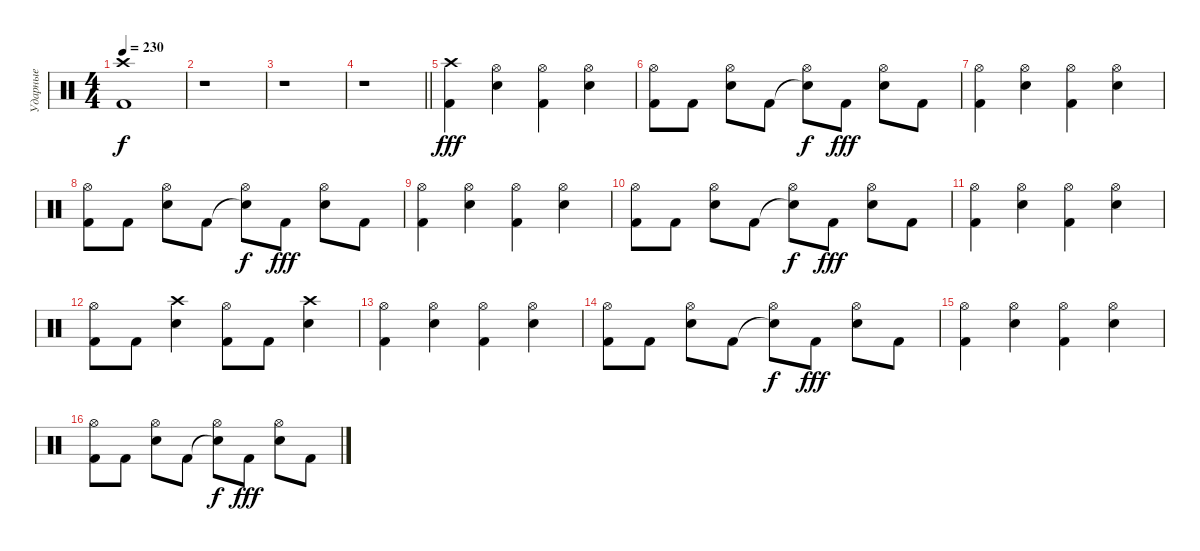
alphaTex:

\track ("Ударные" "Ударные") {instrument percussion}
\staff {score}
\articulation defaults
\ts (4 4)
\tempo 230
\clef neutral
\ks c
("Kick (hit) 2" "Crash high (hit)").1{dy f} |
r.1 |
r.1 |
\barLineRight lightlight
r.1 |
("Kick (hit) 2" "Crash high (hit)").4{dy fff} ("Snare (hit) 2" "Hi-Hat (open)").4 ("Kick (hit) 2" "Hi-Hat (open)").4 ("Snare (hit) 2" "Hi-Hat (open)").4 |
("Kick (hit) 2" "Hi-Hat (open)").8 "Kick (hit) 2".8 ("Snare (hit) 2" "Hi-Hat (open)").8 "Kick (hit) 2".8 ("Snare (hit)"{t} "Hi-Hat (open)").8{dy f} "Kick (hit) 2".8{dy fff} ("Snare (hit) 2" "Hi-Hat (open)").8 "Kick (hit) 2".8 |
("Kick (hit) 2" "Hi-Hat (open)").4 ("Snare (hit) 2" "Hi-Hat (open)").4 ("Kick (hit) 2" "Hi-Hat (open)").4 ("Snare (hit) 2" "Hi-Hat (open)").4 |
("Kick (hit) 2" "Hi-Hat (open)").8 "Kick (hit) 2".8 ("Snare (hit) 2" "Hi-Hat (open)").8 "Kick (hit) 2".8 ("Snare (hit)"{t} "Hi-Hat (open)").8{dy f} "Kick (hit) 2".8{dy fff} ("Snare (hit) 2" "Hi-Hat (open)").8 "Kick (hit) 2".8 |
("Kick (hit) 2" "Hi-Hat (open)").4 ("Snare (hit) 2" "Hi-Hat (open)").4 ("Kick (hit) 2" "Hi-Hat (open)").4 ("Snare (hit) 2" "Hi-Hat (open)").4 |
("Kick (hit) 2" "Hi-Hat (open)").8 "Kick (hit) 2".8 ("Snare (hit) 2" "Hi-Hat (open)").8 "Kick (hit) 2".8 ("Snare (hit)"{t} "Hi-Hat (open)").8{dy f} "Kick (hit) 2".8{dy fff} ("Snare (hit) 2" "Hi-Hat (open)").8 "Kick (hit) 2".8 |
("Kick (hit) 2" "Hi-Hat (open)").4 ("Snare (hit) 2" "Hi-Hat (open)").4 ("Kick (hit) 2" "Hi-Hat (open)").4 ("Snare (hit) 2" "Hi-Hat (open)").4 |
("Kick (hit) 2" "Hi-Hat (open)").8 "Kick (hit) 2".8 ("Snare (hit) 2" "Crash high (hit)").4 ("Kick (hit) 2" "Hi-Hat (open)").8 "Kick (hit) 2".8 ("Snare (hit) 2" "Crash high (hit)").4 |
("Kick (hit) 2" "Hi-Hat (open)").4 ("Snare (hit) 2" "Hi-Hat (open)").4 ("Kick (hit) 2" "Hi-Hat (open)").4 ("Snare (hit) 2" "Hi-Hat (open)").4 |
("Kick (hit) 2" "Hi-Hat (open)").8 "Kick (hit) 2".8 ("Snare (hit) 2" "Hi-Hat (open)").8 "Kick (hit) 2".8 ("Snare (hit)"{t} "Hi-Hat (open)").8{dy f} "Kick (hit) 2".8{dy fff} ("Snare (hit) 2" "Hi-Hat (open)").8 "Kick (hit) 2".8 |
("Kick (hit) 2" "Hi-Hat (open)").4 ("Snare (hit) 2" "Hi-Hat (open)").4 ("Kick (hit) 2" "Hi-Hat (open)").4 ("Snare (hit) 2" "Hi-Hat (open)").4 |
("Kick (hit) 2" "Hi-Hat (open)").8 "Kick (hit) 2".8 ("Snare (hit) 2" "Hi-Hat (open)").8 "Kick (hit) 2".8 ("Snare (hit)"{t} "Hi-Hat (open)").8{dy f} "Kick (hit) 2".8{dy fff} ("Snare (hit) 2" "Hi-Hat (open)").8 "Kick (hit) 2".8
